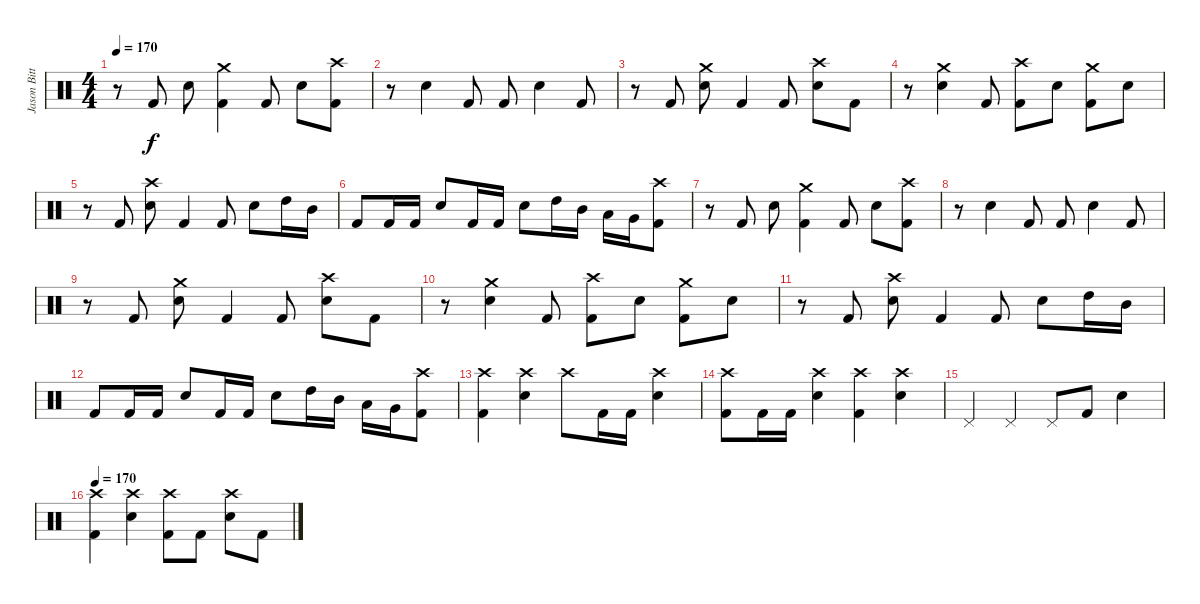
\track ("Jason Bittner" "Jason Bitt") {instrument percussion}
\staff {score}
\articulation defaults
\ts (4 4)
\tempo 170
\clef neutral
\ks c
r.8{dy f} "Kick (hit) 2".8 "Electric Snare (hit)".8 ("Crash medium (hit)" "Kick (hit) 2").4 "Kick (hit) 2".8 "Electric Snare (hit)".8 ("Crash high (hit)" "Kick (hit) 2").8 |
r.8 "Electric Snare (hit)".4 "Kick (hit) 2".8 "Kick (hit) 2".8 "Electric Snare (hit)".4 "Kick (hit) 2".8 |
r.8 "Kick (hit) 2".8 ("Crash medium (hit)" "Electric Snare (hit)").8 "Kick (hit) 2".4 "Kick (hit) 2".8 ("Crash high (hit)" "Electric Snare (hit)").8 "Kick (hit) 2".8 |
r.8 ("Crash medium (hit)" "Electric Snare (hit)").4 "Kick (hit) 2".8 ("Crash high (hit)" "Kick (hit) 2").8 "Electric Snare (hit)".8 ("Crash medium (hit)" "Kick (hit) 2").8 "Electric Snare (hit)".8 |
r.8 "Kick (hit) 2".8 ("Crash high (hit)" "Electric Snare (hit)").8 "Kick (hit) 2".4 "Kick (hit) 2".8 "Electric Snare (hit)".8 "High Tom (hit)".16 "Mid Tom (hit)".16 |
"Kick (hit) 2".8 "Kick (hit) 2".16 "Kick (hit) 2".16 "Electric Snare (hit)".8 "Kick (hit) 2".16 "Kick (hit) 2".16 "Electric Snare (hit)".8 "High Tom (hit)".16 "Mid Tom (hit)".16 "Low Tom (hit)".16 "Very Low Tom (hit)".16 ("Crash high (hit)" "Kick (hit) 2").8 |
r.8 "Kick (hit) 2".8 "Electric Snare (hit)".8 ("Crash medium (hit)" "Kick (hit) 2").4 "Kick (hit) 2".8 "Electric Snare (hit)".8 ("Crash high (hit)" "Kick (hit) 2").8 |
r.8 "Electric Snare (hit)".4 "Kick (hit) 2".8 "Kick (hit) 2".8 "Electric Snare (hit)".4 "Kick (hit) 2".8 |
r.8 "Kick (hit) 2".8 ("Crash medium (hit)" "Electric Snare (hit)").8 "Kick (hit) 2".4 "Kick (hit) 2".8 ("Crash high (hit)" "Electric Snare (hit)").8 "Kick (hit) 2".8 |
r.8 ("Crash medium (hit)" "Electric Snare (hit)").4 "Kick (hit) 2".8 ("Crash high (hit)" "Kick (hit) 2").8 "Electric Snare (hit)".8 ("Crash medium (hit)" "Kick (hit) 2").8 "Electric Snare (hit)".8 |
r.8 "Kick (hit) 2".8 ("Crash high (hit)" "Electric Snare (hit)").8 "Kick (hit) 2".4 "Kick (hit) 2".8 "Electric Snare (hit)".8 "High Tom (hit)".16 "Mid Tom (hit)".16 |
"Kick (hit) 2".8 "Kick (hit) 2".16 "Kick (hit) 2".16 "Electric Snare (hit)".8 "Kick (hit) 2".16 "Kick (hit) 2".16 "Electric Snare (hit)".8 "High Tom (hit)".16 "Mid Tom (hit)".16 "Low Tom (hit)".16 "Very Low Tom (hit)".16 ("Crash high (hit)" "Kick (hit) 2").8 |
("Crash high (hit)" "Kick (hit) 2").4 ("Crash high (hit)" "Electric Snare (hit)").4 "Crash high (hit)".8 "Kick (hit) 2".16 "Kick (hit) 2".16 ("Crash high (hit)" "Electric Snare (hit)").4 |
("Crash high (hit)" "Kick (hit) 2").8 "Kick (hit) 2".16 "Kick (hit) 2".16 ("Crash high (hit)" "Electric Snare (hit)").4 ("Crash high (hit)" "Kick (hit) 2").4 ("Crash high (hit)" "Electric Snare (hit)").4 |
"Pedal Hi-Hat (hit)".4 "Pedal Hi-Hat (hit)".4 "Pedal Hi-Hat (hit)".8 "Kick (hit) 2".8 "Electric Snare (hit)".4 |
\tempo 170
("Crash high (hit)" "Kick (hit) 2").4 ("Crash high (hit)" "Electric Snare (hit)").4 ("Crash high (hit)" "Kick (hit) 2").8 "Kick (hit) 2".8 ("Crash high (hit)" "Electric Snare (hit)").8 "Kick (hit) 2".8
